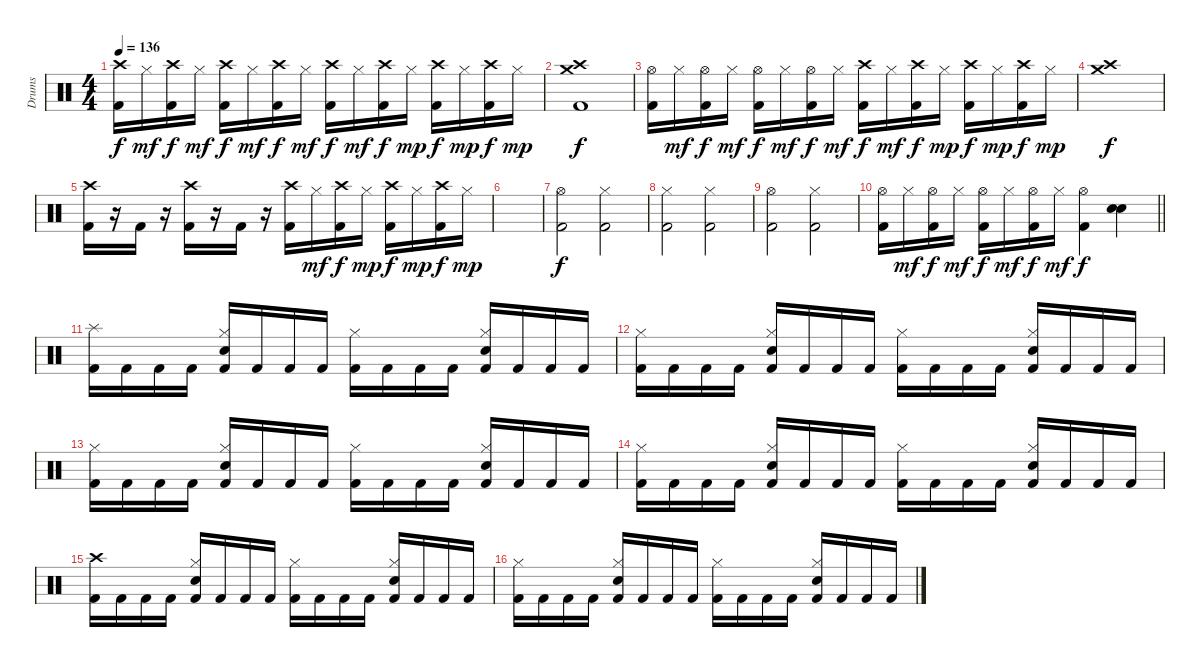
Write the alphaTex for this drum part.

\track ("Drums" "Drums") {instrument percussion}
\staff {score}
\articulation defaults
\ts (4 4)
\section ("" "")
\tempo 136
\clef neutral
\ks c
("Crash high (hit)" "Kick (hit) 2").16{dy f} "Hi-Hat (closed)".16{dy mf} ("Crash high (hit)" "Kick (hit) 2").16{dy f} "Hi-Hat (closed)".16{dy mf} ("Crash high (hit)" "Kick (hit) 2").16{dy f} "Hi-Hat (closed)".16{dy mf} ("Crash high (hit)" "Kick (hit) 2").16{dy f} "Hi-Hat (closed)".16{dy mf} ("Crash high (hit)" "Kick (hit) 2").16{dy f} "Hi-Hat (closed)".16{dy mf} ("Crash high (hit)" "Kick (hit) 2").16{dy f} "Hi-Hat (closed)".16{dy mp} ("Crash high (hit)" "Kick (hit) 2").16{dy f} "Hi-Hat (closed)".16{dy mp} ("Crash high (hit)" "Kick (hit) 2").16{dy f} "Hi-Hat (closed)".16{dy mp} |
("Crash medium (hit)" "Crash high (hit)" "Kick (hit) 2").1{dy f} |
("Hi-Hat (open)" "Kick (hit) 2").16 "Hi-Hat (closed)".16{dy mf} ("Hi-Hat (open)" "Kick (hit) 2").16{dy f} "Hi-Hat (closed)".16{dy mf} ("Hi-Hat (open)" "Kick (hit) 2").16{dy f} "Hi-Hat (closed)".16{dy mf} ("Hi-Hat (open)" "Kick (hit) 2").16{dy f} "Hi-Hat (closed)".16{dy mf} ("Crash high (hit)" "Kick (hit) 2").16{dy f} "Hi-Hat (closed)".16{dy mf} ("Crash high (hit)" "Kick (hit) 2").16{dy f} "Hi-Hat (closed)".16{dy mp} ("Crash high (hit)" "Kick (hit) 2").16{dy f} "Hi-Hat (closed)".16{dy mp} ("Crash high (hit)" "Kick (hit) 2").16{dy f} "Hi-Hat (closed)".16{dy mp} |
("Crash high (hit)" "Crash medium (hit)").1{dy f} |
("Crash high (hit)" "Kick (hit) 2").16 r.16 "Kick (hit) 2".16 r.16 ("Crash high (hit)" "Kick (hit) 2").16 r.16 "Kick (hit) 2".16 r.16 ("Crash high (hit)" "Kick (hit) 2").16 "Hi-Hat (closed)".16{dy mf} ("Crash high (hit)" "Kick (hit) 2").16{dy f} "Hi-Hat (closed)".16{dy mp} ("Crash high (hit)" "Kick (hit) 2").16{dy f} "Hi-Hat (closed)".16{dy mp} ("Crash high (hit)" "Kick (hit) 2").16{dy f} "Hi-Hat (closed)".16{dy mp} |
|
("Hi-Hat (open)" "Kick (hit) 2").2{dy f} ("Hi-Hat (closed)" "Kick (hit) 2").2 |
("Hi-Hat (closed)" "Kick (hit) 2").2 ("Hi-Hat (closed)" "Kick (hit) 2").2 |
("Hi-Hat (open)" "Kick (hit) 2").2 ("Hi-Hat (closed)" "Kick (hit) 2").2 |
\barLineRight lightlight
("Hi-Hat (open)" "Kick (hit) 2").16 "Hi-Hat (closed)".16{dy mf} ("Hi-Hat (open)" "Kick (hit) 2").16{dy f} "Hi-Hat (closed)".16{dy mf} ("Hi-Hat (open)" "Kick (hit) 2").16{dy f} "Hi-Hat (closed)".16{dy mf} ("Hi-Hat (open)" "Kick (hit) 2").16{dy f} "Hi-Hat (closed)".16{dy mf} ("Hi-Hat (open)" "Kick (hit) 2").4{dy f} ("Electric Snare (hit)" "Snare (hit) 2").4 |
\section ("" "")
("Splash (hit)" "Kick (hit) 2").16 "Kick (hit) 2".16 "Kick (hit) 2".16 "Kick (hit) 2".16 ("Hi-Hat (closed)" "Electric Snare (hit)" "Kick (hit) 2").16 "Kick (hit) 2".16 "Kick (hit) 2".16 "Kick (hit) 2".16 ("Hi-Hat (closed)" "Kick (hit) 2").16 "Kick (hit) 2".16 "Kick (hit) 2".16 "Kick (hit) 2".16 ("Hi-Hat (closed)" "Electric Snare (hit)" "Kick (hit) 2").16 "Kick (hit) 2".16 "Kick (hit) 2".16 "Kick (hit) 2".16 |
("Hi-Hat (closed)" "Kick (hit) 2").16 "Kick (hit) 2".16 "Kick (hit) 2".16 "Kick (hit) 2".16 ("Hi-Hat (closed)" "Electric Snare (hit)" "Kick (hit) 2").16 "Kick (hit) 2".16 "Kick (hit) 2".16 "Kick (hit) 2".16 ("Hi-Hat (closed)" "Kick (hit) 2").16 "Kick (hit) 2".16 "Kick (hit) 2".16 "Kick (hit) 2".16 ("Hi-Hat (closed)" "Electric Snare (hit)" "Kick (hit) 2").16 "Kick (hit) 2".16 "Kick (hit) 2".16 "Kick (hit) 2".16 |
("Hi-Hat (closed)" "Kick (hit) 2").16 "Kick (hit) 2".16 "Kick (hit) 2".16 "Kick (hit) 2".16 ("Hi-Hat (closed)" "Electric Snare (hit)" "Kick (hit) 2").16 "Kick (hit) 2".16 "Kick (hit) 2".16 "Kick (hit) 2".16 ("Hi-Hat (closed)" "Kick (hit) 2").16 "Kick (hit) 2".16 "Kick (hit) 2".16 "Kick (hit) 2".16 ("Hi-Hat (closed)" "Electric Snare (hit)" "Kick (hit) 2").16 "Kick (hit) 2".16 "Kick (hit) 2".16 "Kick (hit) 2".16 |
("Hi-Hat (closed)" "Kick (hit) 2").16 "Kick (hit) 2".16 "Kick (hit) 2".16 "Kick (hit) 2".16 ("Hi-Hat (closed)" "Electric Snare (hit)" "Kick (hit) 2").16 "Kick (hit) 2".16 "Kick (hit) 2".16 "Kick (hit) 2".16 ("Hi-Hat (closed)" "Kick (hit) 2").16 "Kick (hit) 2".16 "Kick (hit) 2".16 "Kick (hit) 2".16 ("Hi-Hat (closed)" "Electric Snare (hit)" "Kick (hit) 2").16 "Kick (hit) 2".16 "Kick (hit) 2".16 "Kick (hit) 2".16 |
("Crash high (hit)" "Kick (hit) 2").16 "Kick (hit) 2".16 "Kick (hit) 2".16 "Kick (hit) 2".16 ("Hi-Hat (closed)" "Electric Snare (hit)" "Kick (hit) 2").16 "Kick (hit) 2".16 "Kick (hit) 2".16 "Kick (hit) 2".16 ("Hi-Hat (closed)" "Kick (hit) 2").16 "Kick (hit) 2".16 "Kick (hit) 2".16 "Kick (hit) 2".16 ("Hi-Hat (closed)" "Electric Snare (hit)" "Kick (hit) 2").16 "Kick (hit) 2".16 "Kick (hit) 2".16 "Kick (hit) 2".16 |
("Hi-Hat (closed)" "Kick (hit) 2").16 "Kick (hit) 2".16 "Kick (hit) 2".16 "Kick (hit) 2".16 ("Hi-Hat (closed)" "Electric Snare (hit)" "Kick (hit) 2").16 "Kick (hit) 2".16 "Kick (hit) 2".16 "Kick (hit) 2".16 ("Hi-Hat (closed)" "Kick (hit) 2").16 "Kick (hit) 2".16 "Kick (hit) 2".16 "Kick (hit) 2".16 ("Hi-Hat (closed)" "Electric Snare (hit)" "Kick (hit) 2").16 "Kick (hit) 2".16 "Kick (hit) 2".16 "Kick (hit) 2".16
